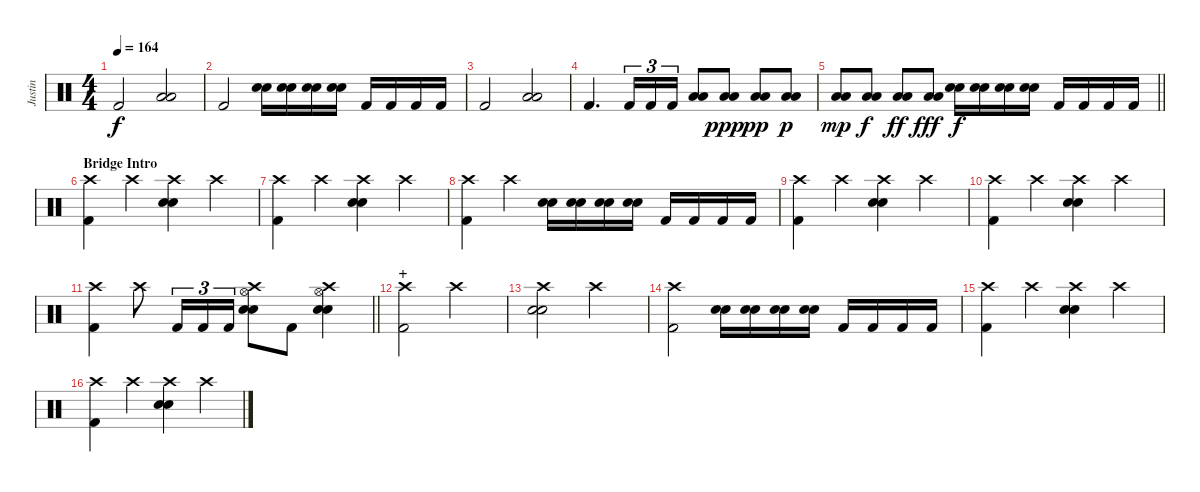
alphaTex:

\track ("Justin" "Justin") {instrument percussion}
\staff {score}
\articulation defaults
\ts (4 4)
\tempo 164
\clef neutral
\ks c "Kick (hit) 2".2{dy f}
("Low Tom (hit)" "Low Floor Tom (hit)").2{bd 240} |
"Kick (hit) 2".2 ("Electric Snare (hit)" "Snare (hit) 2").16 ("Electric Snare (hit)" "Snare (hit) 2").16 ("Electric Snare (hit)" "Snare (hit) 2").16 ("Electric Snare (hit)" "Snare (hit) 2").16 "Kick (hit) 2".16 "Kick (hit) 2".16 "Kick (hit) 2".16 "Kick (hit) 2".16 |
"Kick (hit) 2".2 ("Low Tom (hit)" "Low Floor Tom (hit)").2{bd 240} |
"Kick (hit) 2".4{d} "Kick (hit) 2".16{tu (3 2)} "Kick (hit) 2".16{tu (3 2)} "Kick (hit) 2".16{tu (3 2)} ("Low Tom (hit)" "Low Floor Tom (hit)").8{bd 240} ("Low Tom (hit)" "Low Floor Tom (hit)").8{dy ppp} ("Low Tom (hit)" "Low Floor Tom (hit)").8{dy pp} ("Low Tom (hit)" "Low Floor Tom (hit)").8{dy p} |
\barLineRight lightlight
("Low Tom (hit)" "Low Floor Tom (hit)").8{dy mp} ("Low Tom (hit)" "Low Floor Tom (hit)").8{dy f} ("Low Tom (hit)" "Low Floor Tom (hit)").8{dy ff} ("Low Tom (hit)" "Low Floor Tom (hit)").8{dy fff} ("Electric Snare (hit)" "Snare (hit) 2").16{dy f} ("Electric Snare (hit)" "Snare (hit) 2").16 ("Electric Snare (hit)" "Snare (hit) 2").16 ("Electric Snare (hit)" "Snare (hit) 2").16 "Kick (hit) 2".16 "Kick (hit) 2".16 "Kick (hit) 2".16 "Kick (hit) 2".16 |
\section ("" "Bridge Intro")
("Crash high (hit)" "Kick (hit) 2").4 "Crash high (hit)".4 ("Crash high (hit)" "Electric Snare (hit)" "Snare (hit) 2").4 "Crash high (hit)".4 |
("Crash high (hit)" "Kick (hit) 2").4 "Crash high (hit)".4 ("Crash high (hit)" "Electric Snare (hit)" "Snare (hit) 2").4 "Crash high (hit)".4 |
("Crash high (hit)" "Kick (hit) 2").4 "Crash high (hit)".4 ("Electric Snare (hit)" "Snare (hit) 2").16 ("Electric Snare (hit)" "Snare (hit) 2").16 ("Electric Snare (hit)" "Snare (hit) 2").16 ("Electric Snare (hit)" "Snare (hit) 2").16 "Kick (hit) 2".16 "Kick (hit) 2".16 "Kick (hit) 2".16 "Kick (hit) 2".16 |
("Crash high (hit)" "Kick (hit) 2").4 "Crash high (hit)".4 ("Crash high (hit)" "Electric Snare (hit)" "Snare (hit) 2").4 "Crash high (hit)".4 |
("Crash high (hit)" "Kick (hit) 2").4 "Crash high (hit)".4 ("Crash high (hit)" "Electric Snare (hit)" "Snare (hit) 2").4 "Crash high (hit)".4 |
\barLineRight lightlight
("Crash high (hit)" "Kick (hit) 2").4 "Crash high (hit)".8 "Kick (hit) 2".16{tu (3 2)} "Kick (hit) 2".16{tu (3 2)} "Kick (hit) 2".16{tu (3 2)} ("Crash high (hit)" "Hi-Hat (open)" "Electric Snare (hit)" "Snare (hit) 2").8 "Kick (hit) 2".8 ("Crash high (hit)" "Hi-Hat (open)" "Electric Snare (hit)" "Snare (hit) 2").4 |
\section ("" "+")
("Crash high (hit)" "Kick (hit) 2").2 "Crash high (hit)".2 |
("Crash high (hit)" "Electric Snare (hit)" "Snare (hit) 2").2 "Crash high (hit)".2 |
("Crash high (hit)" "Kick (hit) 2").2 ("Electric Snare (hit)" "Snare (hit) 2").16 ("Electric Snare (hit)" "Snare (hit) 2").16 ("Electric Snare (hit)" "Snare (hit) 2").16 ("Electric Snare (hit)" "Snare (hit) 2").16 "Kick (hit) 2".16 "Kick (hit) 2".16 "Kick (hit) 2".16 "Kick (hit) 2".16 |
("Crash high (hit)" "Kick (hit) 2").4 "Crash high (hit)".4 ("Crash high (hit)" "Electric Snare (hit)" "Snare (hit) 2").4 "Crash high (hit)".4 |
("Crash high (hit)" "Kick (hit) 2").4 "Crash high (hit)".4 ("Crash high (hit)" "Electric Snare (hit)" "Snare (hit) 2").4 "Crash high (hit)".4
